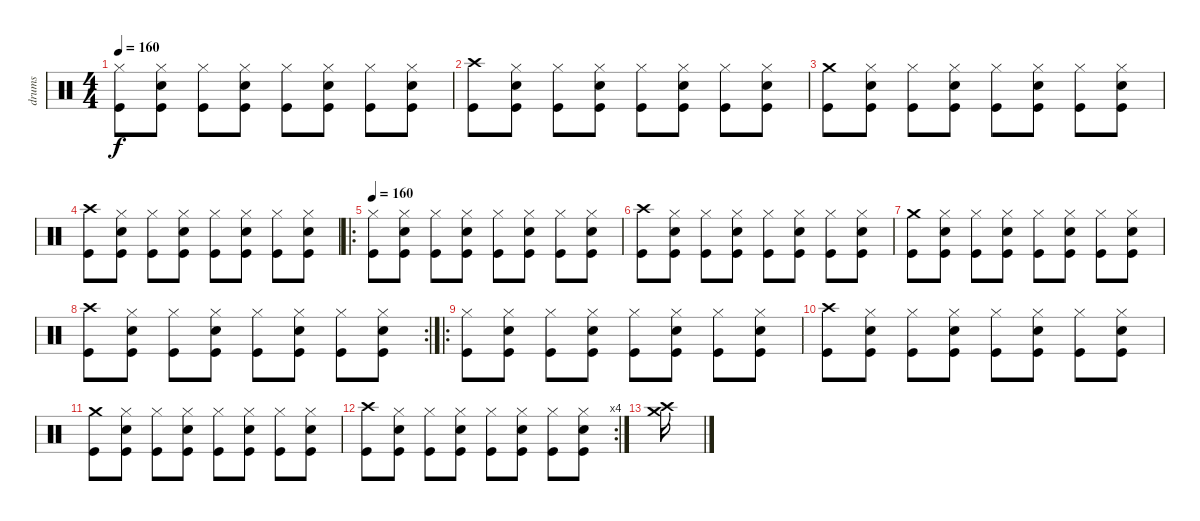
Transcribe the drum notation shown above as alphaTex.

\track ("drums" "drums") {instrument percussion}
\staff {score}
\articulation defaults
\ts (4 4)
\tempo 160
\clef neutral
\ks c
("Hi-Hat (closed)" "Kick (hit)").8{dy f} ("Hi-Hat (closed)" "Snare (hit) 2" "Kick (hit)").8 ("Hi-Hat (closed)" "Kick (hit)").8 ("Hi-Hat (closed)" "Snare (hit) 2" "Kick (hit)").8 ("Hi-Hat (closed)" "Kick (hit)").8 ("Hi-Hat (closed)" "Snare (hit) 2" "Kick (hit)").8 ("Hi-Hat (closed)" "Kick (hit)").8 ("Hi-Hat (closed)" "Snare (hit) 2" "Kick (hit)").8 |
("Crash high (hit)" "Kick (hit)").8 ("Hi-Hat (closed)" "Snare (hit) 2" "Kick (hit)").8 ("Hi-Hat (closed)" "Kick (hit)").8 ("Hi-Hat (closed)" "Snare (hit) 2" "Kick (hit)").8 ("Hi-Hat (closed)" "Kick (hit)").8 ("Hi-Hat (closed)" "Snare (hit) 2" "Kick (hit)").8 ("Hi-Hat (closed)" "Kick (hit)").8 ("Hi-Hat (closed)" "Snare (hit) 2" "Kick (hit)").8 |
("Crash medium (hit)" "Kick (hit)").8 ("Hi-Hat (closed)" "Snare (hit) 2" "Kick (hit)").8 ("Hi-Hat (closed)" "Kick (hit)").8 ("Hi-Hat (closed)" "Snare (hit) 2" "Kick (hit)").8 ("Hi-Hat (closed)" "Kick (hit)").8 ("Hi-Hat (closed)" "Snare (hit) 2" "Kick (hit)").8 ("Hi-Hat (closed)" "Kick (hit)").8 ("Hi-Hat (closed)" "Snare (hit) 2" "Kick (hit)").8 |
("Crash high (hit)" "Kick (hit)").8 ("Hi-Hat (closed)" "Snare (hit) 2" "Kick (hit)").8 ("Hi-Hat (closed)" "Kick (hit)").8 ("Hi-Hat (closed)" "Snare (hit) 2" "Kick (hit)").8 ("Hi-Hat (closed)" "Kick (hit)").8 ("Hi-Hat (closed)" "Snare (hit) 2" "Kick (hit)").8 ("Hi-Hat (closed)" "Kick (hit)").8 ("Hi-Hat (closed)" "Snare (hit) 2" "Kick (hit)").8 |
\ro
\tempo 160
("Hi-Hat (closed)" "Kick (hit)").8 ("Hi-Hat (closed)" "Snare (hit) 2" "Kick (hit)").8 ("Hi-Hat (closed)" "Kick (hit)").8 ("Hi-Hat (closed)" "Snare (hit) 2" "Kick (hit)").8 ("Hi-Hat (closed)" "Kick (hit)").8 ("Hi-Hat (closed)" "Snare (hit) 2" "Kick (hit)").8 ("Hi-Hat (closed)" "Kick (hit)").8 ("Hi-Hat (closed)" "Snare (hit) 2" "Kick (hit)").8 |
("Crash high (hit)" "Kick (hit)").8 ("Hi-Hat (closed)" "Snare (hit) 2" "Kick (hit)").8 ("Hi-Hat (closed)" "Kick (hit)").8 ("Hi-Hat (closed)" "Snare (hit) 2" "Kick (hit)").8 ("Hi-Hat (closed)" "Kick (hit)").8 ("Hi-Hat (closed)" "Snare (hit) 2" "Kick (hit)").8 ("Hi-Hat (closed)" "Kick (hit)").8 ("Hi-Hat (closed)" "Snare (hit) 2" "Kick (hit)").8 |
("Crash medium (hit)" "Kick (hit)").8 ("Hi-Hat (closed)" "Snare (hit) 2" "Kick (hit)").8 ("Hi-Hat (closed)" "Kick (hit)").8 ("Hi-Hat (closed)" "Snare (hit) 2" "Kick (hit)").8 ("Hi-Hat (closed)" "Kick (hit)").8 ("Hi-Hat (closed)" "Snare (hit) 2" "Kick (hit)").8 ("Hi-Hat (closed)" "Kick (hit)").8 ("Hi-Hat (closed)" "Snare (hit) 2" "Kick (hit)").8 |
\rc 2
("Crash high (hit)" "Kick (hit)").8 ("Hi-Hat (closed)" "Snare (hit) 2" "Kick (hit)").8 ("Hi-Hat (closed)" "Kick (hit)").8 ("Hi-Hat (closed)" "Snare (hit) 2" "Kick (hit)").8 ("Hi-Hat (closed)" "Kick (hit)").8 ("Hi-Hat (closed)" "Snare (hit) 2" "Kick (hit)").8 ("Hi-Hat (closed)" "Kick (hit)").8 ("Hi-Hat (closed)" "Snare (hit) 2" "Kick (hit)").8 |
\ro
("Hi-Hat (closed)" "Kick (hit)").8 ("Hi-Hat (closed)" "Snare (hit) 2" "Kick (hit)").8 ("Hi-Hat (closed)" "Kick (hit)").8 ("Hi-Hat (closed)" "Snare (hit) 2" "Kick (hit)").8 ("Hi-Hat (closed)" "Kick (hit)").8 ("Hi-Hat (closed)" "Snare (hit) 2" "Kick (hit)").8 ("Hi-Hat (closed)" "Kick (hit)").8 ("Hi-Hat (closed)" "Snare (hit) 2" "Kick (hit)").8 |
("Crash high (hit)" "Kick (hit)").8 ("Hi-Hat (closed)" "Snare (hit) 2" "Kick (hit)").8 ("Hi-Hat (closed)" "Kick (hit)").8 ("Hi-Hat (closed)" "Snare (hit) 2" "Kick (hit)").8 ("Hi-Hat (closed)" "Kick (hit)").8 ("Hi-Hat (closed)" "Snare (hit) 2" "Kick (hit)").8 ("Hi-Hat (closed)" "Kick (hit)").8 ("Hi-Hat (closed)" "Snare (hit) 2" "Kick (hit)").8 |
("Crash medium (hit)" "Kick (hit)").8 ("Hi-Hat (closed)" "Snare (hit) 2" "Kick (hit)").8 ("Hi-Hat (closed)" "Kick (hit)").8 ("Hi-Hat (closed)" "Snare (hit) 2" "Kick (hit)").8 ("Hi-Hat (closed)" "Kick (hit)").8 ("Hi-Hat (closed)" "Snare (hit) 2" "Kick (hit)").8 ("Hi-Hat (closed)" "Kick (hit)").8 ("Hi-Hat (closed)" "Snare (hit) 2" "Kick (hit)").8 |
\rc 4
("Crash high (hit)" "Kick (hit)").8 ("Hi-Hat (closed)" "Snare (hit) 2" "Kick (hit)").8 ("Hi-Hat (closed)" "Kick (hit)").8 ("Hi-Hat (closed)" "Snare (hit) 2" "Kick (hit)").8 ("Hi-Hat (closed)" "Kick (hit)").8 ("Hi-Hat (closed)" "Snare (hit) 2" "Kick (hit)").8 ("Hi-Hat (closed)" "Kick (hit)").8 ("Hi-Hat (closed)" "Snare (hit) 2" "Kick (hit)").8 |
("Crash high (hit)" "Crash medium (hit)").16
